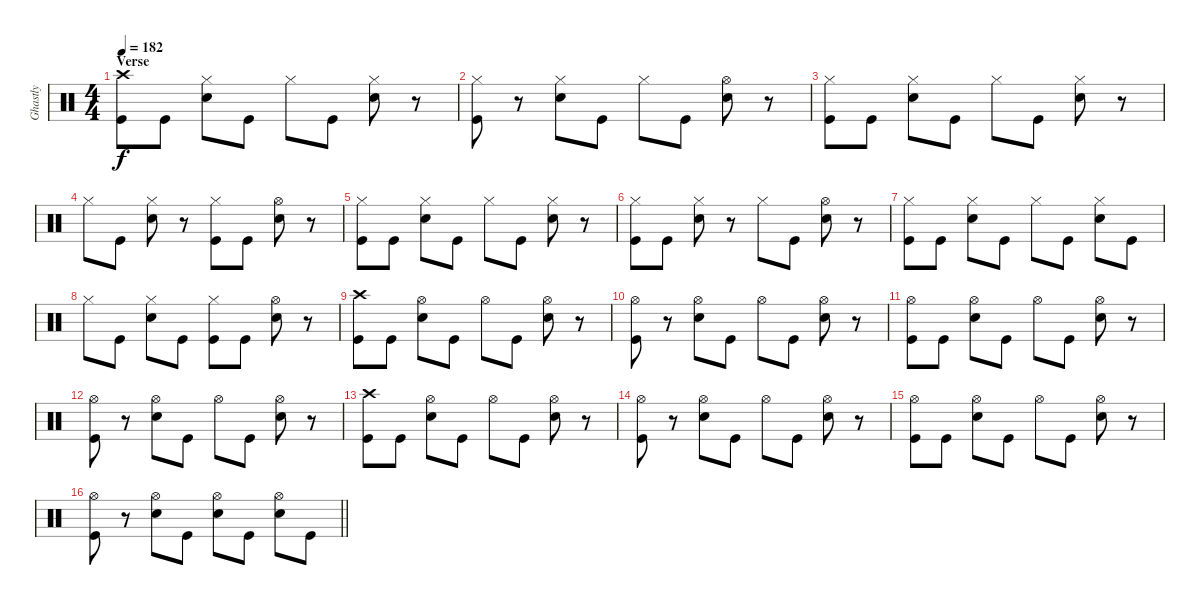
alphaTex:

\track ("Ghastly" "Ghastly") {instrument percussion}
\staff {score}
\articulation defaults
\ts (4 4)
\section ("" "Verse")
\tempo 182
\clef neutral
\ks c
("Crash high (hit)" "Kick (hit)").8{dy f} "Kick (hit)".8 ("Hi-Hat (closed)" "Electric Snare (hit)").8 "Kick (hit)".8 "Hi-Hat (closed)".8 "Kick (hit)".8 ("Hi-Hat (closed)" "Electric Snare (hit)").8 r.8 |
("Hi-Hat (closed)" "Kick (hit)").8 r.8 ("Hi-Hat (closed)" "Electric Snare (hit)").8 "Kick (hit)".8 "Hi-Hat (closed)".8 "Kick (hit)".8 ("Hi-Hat (open)" "Electric Snare (hit)").8 r.8 |
("Hi-Hat (closed)" "Kick (hit)").8 "Kick (hit)".8 ("Hi-Hat (closed)" "Electric Snare (hit)").8 "Kick (hit)".8 "Hi-Hat (closed)".8 "Kick (hit)".8 ("Hi-Hat (closed)" "Electric Snare (hit)").8 r.8 |
"Hi-Hat (closed)".8 "Kick (hit)".8 ("Hi-Hat (closed)" "Electric Snare (hit)").8 r.8 ("Hi-Hat (closed)" "Kick (hit)").8 "Kick (hit)".8 ("Hi-Hat (open)" "Electric Snare (hit)").8 r.8 |
("Hi-Hat (closed)" "Kick (hit)").8 "Kick (hit)".8 ("Hi-Hat (closed)" "Electric Snare (hit)").8 "Kick (hit)".8 "Hi-Hat (closed)".8 "Kick (hit)".8 ("Hi-Hat (closed)" "Electric Snare (hit)").8 r.8 |
("Hi-Hat (closed)" "Kick (hit)").8 "Kick (hit)".8 ("Hi-Hat (closed)" "Electric Snare (hit)").8 r.8 "Hi-Hat (closed)".8 "Kick (hit)".8 ("Hi-Hat (open)" "Electric Snare (hit)").8 r.8 |
("Hi-Hat (closed)" "Kick (hit)").8 "Kick (hit)".8 ("Hi-Hat (closed)" "Electric Snare (hit)").8 "Kick (hit)".8 "Hi-Hat (closed)".8 "Kick (hit)".8 ("Hi-Hat (closed)" "Electric Snare (hit)").8 "Kick (hit)".8 |
"Hi-Hat (closed)".8 "Kick (hit)".8 ("Hi-Hat (closed)" "Electric Snare (hit)").8 "Kick (hit)".8 ("Hi-Hat (closed)" "Kick (hit)").8 "Kick (hit)".8 ("Hi-Hat (open)" "Electric Snare (hit)").8 r.8 |
("Crash high (hit)" "Kick (hit)").8 "Kick (hit)".8 ("Hi-Hat (open)" "Electric Snare (hit)").8 "Kick (hit)".8 "Hi-Hat (open)".8 "Kick (hit)".8 ("Hi-Hat (open)" "Electric Snare (hit)").8 r.8 |
("Hi-Hat (open)" "Kick (hit)").8 r.8 ("Hi-Hat (open)" "Electric Snare (hit)").8 "Kick (hit)".8 "Hi-Hat (open)".8 "Kick (hit)".8 ("Hi-Hat (open)" "Electric Snare (hit)").8 r.8 |
("Hi-Hat (open)" "Kick (hit)").8 "Kick (hit)".8 ("Hi-Hat (open)" "Electric Snare (hit)").8 "Kick (hit)".8 "Hi-Hat (open)".8 "Kick (hit)".8 ("Hi-Hat (open)" "Electric Snare (hit)").8 r.8 |
("Hi-Hat (open)" "Kick (hit)").8 r.8 ("Hi-Hat (open)" "Electric Snare (hit)").8 "Kick (hit)".8 "Hi-Hat (open)".8 "Kick (hit)".8 ("Hi-Hat (open)" "Electric Snare (hit)").8 r.8 |
("Crash high (hit)" "Kick (hit)").8 "Kick (hit)".8 ("Hi-Hat (open)" "Electric Snare (hit)").8 "Kick (hit)".8 "Hi-Hat (open)".8 "Kick (hit)".8 ("Hi-Hat (open)" "Electric Snare (hit)").8 r.8 |
("Hi-Hat (open)" "Kick (hit)").8 r.8 ("Hi-Hat (open)" "Electric Snare (hit)").8 "Kick (hit)".8 "Hi-Hat (open)".8 "Kick (hit)".8 ("Hi-Hat (open)" "Electric Snare (hit)").8 r.8 |
("Hi-Hat (open)" "Kick (hit)").8 "Kick (hit)".8 ("Hi-Hat (open)" "Electric Snare (hit)").8 "Kick (hit)".8 "Hi-Hat (open)".8 "Kick (hit)".8 ("Hi-Hat (open)" "Electric Snare (hit)").8 r.8 |
\barLineRight lightlight
("Hi-Hat (open)" "Kick (hit)").8 r.8 ("Hi-Hat (open)" "Electric Snare (hit)").8 "Kick (hit)".8 ("Hi-Hat (open)" "Electric Snare (hit)").8 "Kick (hit)".8 ("Hi-Hat (open)" "Electric Snare (hit)").8 "Kick (hit)".8
